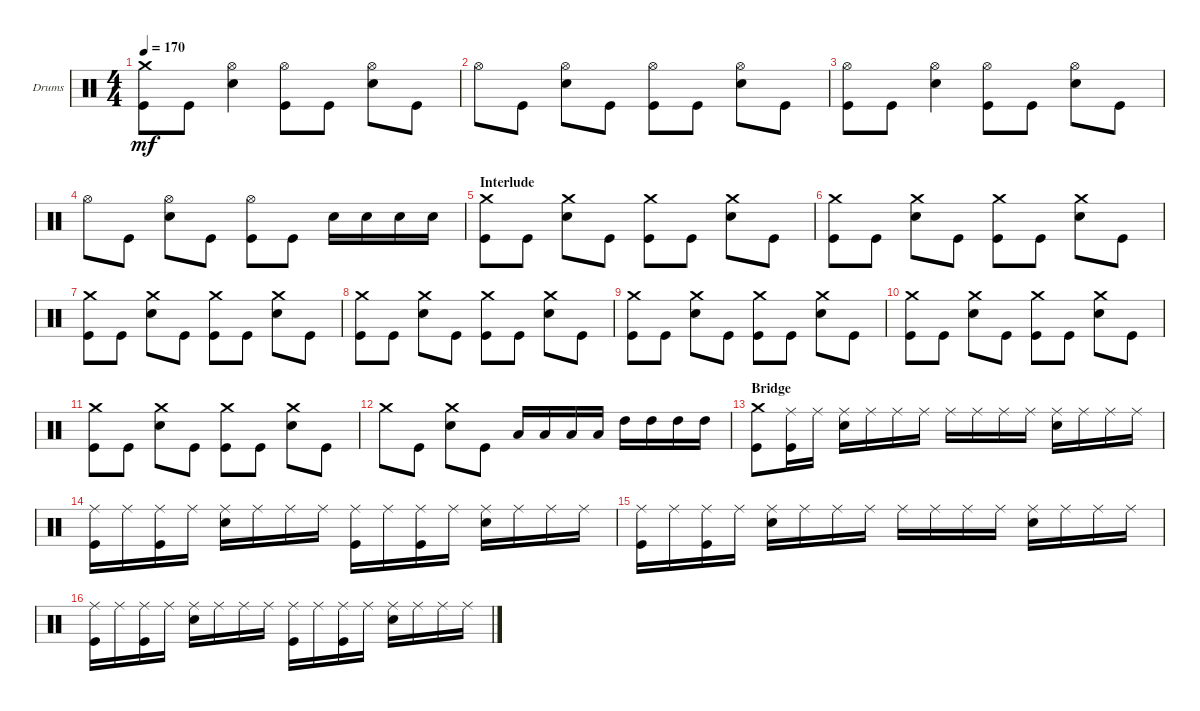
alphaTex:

\defaultSystemsLayout 4
\bracketExtendMode groupsimilarinstruments
\firstSystemTrackNameOrientation horizontal
\otherSystemsTrackNameOrientation horizontal
\track ("Drumkit" "Drums") {instrument percussion}
\staff {score}
\articulation defaults
\ts (4 4)
\tempo 170
\clef neutral
\ks c
("Crash medium (hit)" "Kick (hit)").8{dy mf} "Kick (hit)".8 ("Hi-Hat (open)" "Snare (hit) 2").4 ("Kick (hit)" "Hi-Hat (open)").8 "Kick (hit)".8 ("Hi-Hat (open)" "Snare (hit) 2").8 "Kick (hit)".8 |
"Hi-Hat (open)".8 "Kick (hit)".8 ("Snare (hit) 2" "Hi-Hat (open)").8 "Kick (hit)".8 ("Kick (hit)" "Hi-Hat (open)").8 "Kick (hit)".8 ("Snare (hit) 2" "Hi-Hat (open)").8 "Kick (hit)".8 |
("Kick (hit)" "Hi-Hat (open)").8 "Kick (hit)".8 ("Hi-Hat (open)" "Snare (hit) 2").4 ("Kick (hit)" "Hi-Hat (open)").8 "Kick (hit)".8 ("Hi-Hat (open)" "Snare (hit) 2").8 "Kick (hit)".8 |
"Hi-Hat (open)".8 "Kick (hit)".8 ("Snare (hit) 2" "Hi-Hat (open)").8 "Kick (hit)".8 ("Kick (hit)" "Hi-Hat (open)").8 "Kick (hit)".8 "Snare (hit) 2".16 "Snare (hit) 2".16 "Snare (hit) 2".16 "Snare (hit) 2".16 |
\section ("" "Interlude")
("Crash medium (hit)" "Kick (hit)").8 "Kick (hit)".8 ("Crash medium (hit)" "Snare (hit) 2").8 "Kick (hit)".8 ("Crash medium (hit)" "Kick (hit)").8 "Kick (hit)".8 ("Crash medium (hit)" "Snare (hit) 2").8 "Kick (hit)".8 |
("Crash medium (hit)" "Kick (hit)").8 "Kick (hit)".8 ("Crash medium (hit)" "Snare (hit) 2").8 "Kick (hit)".8 ("Crash medium (hit)" "Kick (hit)").8 "Kick (hit)".8 ("Crash medium (hit)" "Snare (hit) 2").8 "Kick (hit)".8 |
("Crash medium (hit)" "Kick (hit)").8 "Kick (hit)".8 ("Crash medium (hit)" "Snare (hit) 2").8 "Kick (hit)".8 ("Crash medium (hit)" "Kick (hit)").8 "Kick (hit)".8 ("Crash medium (hit)" "Snare (hit) 2").8 "Kick (hit)".8 |
("Crash medium (hit)" "Kick (hit)").8 "Kick (hit)".8 ("Crash medium (hit)" "Snare (hit) 2").8 "Kick (hit)".8 ("Crash medium (hit)" "Kick (hit)").8 "Kick (hit)".8 ("Crash medium (hit)" "Snare (hit) 2").8 "Kick (hit)".8 |
("Crash medium (hit)" "Kick (hit)").8 "Kick (hit)".8 ("Crash medium (hit)" "Snare (hit) 2").8 "Kick (hit)".8 ("Crash medium (hit)" "Kick (hit)").8 "Kick (hit)".8 ("Crash medium (hit)" "Snare (hit) 2").8 "Kick (hit)".8 |
("Crash medium (hit)" "Kick (hit)").8 "Kick (hit)".8 ("Crash medium (hit)" "Snare (hit) 2").8 "Kick (hit)".8 ("Crash medium (hit)" "Kick (hit)").8 "Kick (hit)".8 ("Crash medium (hit)" "Snare (hit) 2").8 "Kick (hit)".8 |
("Crash medium (hit)" "Kick (hit)").8 "Kick (hit)".8 ("Crash medium (hit)" "Snare (hit) 2").8 "Kick (hit)".8 ("Crash medium (hit)" "Kick (hit)").8 "Kick (hit)".8 ("Crash medium (hit)" "Snare (hit) 2").8 "Kick (hit)".8 |
"Crash medium (hit)".8 "Kick (hit)".8 ("Crash medium (hit)" "Snare (hit) 2").8 "Kick (hit)".8 "Low Tom (hit)".16 "Low Tom (hit)".16 "Low Tom (hit)".16 "Low Tom (hit)".16 "High Tom (hit)".16 "High Tom (hit)".16 "High Tom (hit)".16 "High Tom (hit)".16 |
\section ("" "Bridge")
("Kick (hit)" "Crash medium (hit)").8 ("Ride (middle)" "Kick (hit)").16 "Ride (middle)".16 ("Ride (middle)" "Snare (hit) 2").16 "Ride (middle)".16 "Ride (middle)".16 "Ride (middle)".16 "Ride (middle)".16 "Ride (middle)".16 "Ride (middle)".16 "Ride (middle)".16 ("Ride (middle)" "Snare (hit) 2").16 "Ride (middle)".16 "Ride (middle)".16 "Ride (middle)".16 |
("Ride (middle)" "Kick (hit)").16 "Ride (middle)".16 ("Ride (middle)" "Kick (hit)").16 "Ride (middle)".16 ("Ride (middle)" "Snare (hit) 2").16 "Ride (middle)".16 "Ride (middle)".16 "Ride (middle)".16 ("Ride (middle)" "Kick (hit)").16 "Ride (middle)".16 ("Ride (middle)" "Kick (hit)").16 "Ride (middle)".16 ("Ride (middle)" "Snare (hit) 2").16 "Ride (middle)".16 "Ride (middle)".16 "Ride (middle)".16 |
("Ride (middle)" "Kick (hit)").16 "Ride (middle)".16 ("Ride (middle)" "Kick (hit)").16 "Ride (middle)".16 ("Ride (middle)" "Snare (hit) 2").16 "Ride (middle)".16 "Ride (middle)".16 "Ride (middle)".16 "Ride (middle)".16 "Ride (middle)".16 "Ride (middle)".16 "Ride (middle)".16 ("Ride (middle)" "Snare (hit) 2").16 "Ride (middle)".16 "Ride (middle)".16 "Ride (middle)".16 |
("Ride (middle)" "Kick (hit)").16 "Ride (middle)".16 ("Ride (middle)" "Kick (hit)").16 "Ride (middle)".16 ("Ride (middle)" "Snare (hit) 2").16 "Ride (middle)".16 "Ride (middle)".16 "Ride (middle)".16 ("Ride (middle)" "Kick (hit)").16 "Ride (middle)".16 ("Ride (middle)" "Kick (hit)").16 "Ride (middle)".16 ("Ride (middle)" "Snare (hit) 2").16 "Ride (middle)".16 "Ride (middle)".16 "Ride (middle)".16
